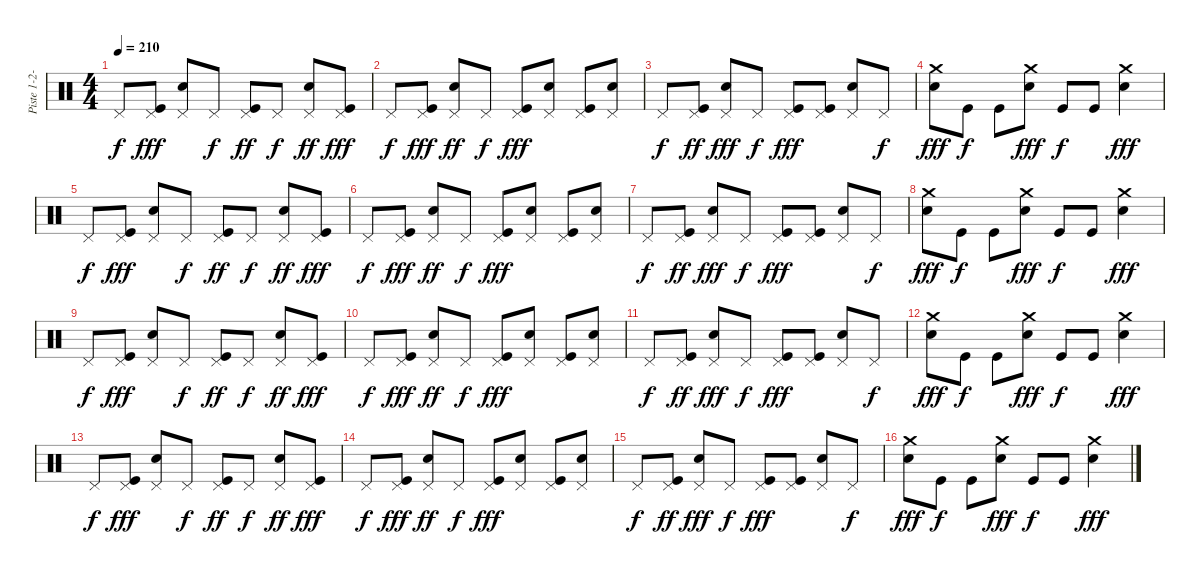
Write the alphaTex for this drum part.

\track ("Piste 1-2-3-4" "Piste 1-2-") {instrument percussion}
\staff {score}
\articulation defaults
\ts (4 4)
\tempo 210
\clef neutral
\ks c "Pedal Hi-Hat (hit)".8{dy f}
("Pedal Hi-Hat (hit)" "Kick (hit)").8{dy fff} ("Pedal Hi-Hat (hit)" "Snare (hit) 2").8 "Pedal Hi-Hat (hit)".8{dy f} ("Pedal Hi-Hat (hit)" "Kick (hit)").8{dy ff} "Pedal Hi-Hat (hit)".8{dy f} ("Pedal Hi-Hat (hit)" "Snare (hit) 2").8{dy ff} ("Pedal Hi-Hat (hit)" "Kick (hit)").8{dy fff} |
"Pedal Hi-Hat (hit)".8{dy f} ("Pedal Hi-Hat (hit)" "Kick (hit)").8{dy fff} ("Pedal Hi-Hat (hit)" "Snare (hit) 2").8{dy ff} "Pedal Hi-Hat (hit)".8{dy f} ("Pedal Hi-Hat (hit)" "Kick (hit)").8{dy fff} ("Pedal Hi-Hat (hit)" "Snare (hit) 2").8 ("Pedal Hi-Hat (hit)" "Kick (hit)").8 ("Pedal Hi-Hat (hit)" "Snare (hit) 2").8 |
"Pedal Hi-Hat (hit)".8{dy f} ("Pedal Hi-Hat (hit)" "Kick (hit)").8{dy ff} ("Pedal Hi-Hat (hit)" "Snare (hit) 2").8{dy fff} "Pedal Hi-Hat (hit)".8{dy f} ("Pedal Hi-Hat (hit)" "Kick (hit)").8{dy fff} ("Pedal Hi-Hat (hit)" "Kick (hit)").8 ("Pedal Hi-Hat (hit)" "Snare (hit) 2").8 "Pedal Hi-Hat (hit)".8{dy f} |
("Crash medium (hit)" "Snare (hit) 2").8{dy fff} "Kick (hit)".8{dy f} "Kick (hit)".8 ("Crash medium (hit)" "Snare (hit) 2").8{dy fff} "Kick (hit)".8{dy f} "Kick (hit)".8 ("Crash medium (hit)" "Snare (hit) 2").4{dy fff} |
"Pedal Hi-Hat (hit)".8{dy f} ("Pedal Hi-Hat (hit)" "Kick (hit)").8{dy fff} ("Pedal Hi-Hat (hit)" "Snare (hit) 2").8 "Pedal Hi-Hat (hit)".8{dy f} ("Pedal Hi-Hat (hit)" "Kick (hit)").8{dy ff} "Pedal Hi-Hat (hit)".8{dy f} ("Pedal Hi-Hat (hit)" "Snare (hit) 2").8{dy ff} ("Pedal Hi-Hat (hit)" "Kick (hit)").8{dy fff} |
"Pedal Hi-Hat (hit)".8{dy f} ("Pedal Hi-Hat (hit)" "Kick (hit)").8{dy fff} ("Pedal Hi-Hat (hit)" "Snare (hit) 2").8{dy ff} "Pedal Hi-Hat (hit)".8{dy f} ("Pedal Hi-Hat (hit)" "Kick (hit)").8{dy fff} ("Pedal Hi-Hat (hit)" "Snare (hit) 2").8 ("Pedal Hi-Hat (hit)" "Kick (hit)").8 ("Pedal Hi-Hat (hit)" "Snare (hit) 2").8 |
"Pedal Hi-Hat (hit)".8{dy f} ("Pedal Hi-Hat (hit)" "Kick (hit)").8{dy ff} ("Pedal Hi-Hat (hit)" "Snare (hit) 2").8{dy fff} "Pedal Hi-Hat (hit)".8{dy f} ("Pedal Hi-Hat (hit)" "Kick (hit)").8{dy fff} ("Pedal Hi-Hat (hit)" "Kick (hit)").8 ("Pedal Hi-Hat (hit)" "Snare (hit) 2").8 "Pedal Hi-Hat (hit)".8{dy f} |
("Crash medium (hit)" "Snare (hit) 2").8{dy fff} "Kick (hit)".8{dy f} "Kick (hit)".8 ("Crash medium (hit)" "Snare (hit) 2").8{dy fff} "Kick (hit)".8{dy f} "Kick (hit)".8 ("Crash medium (hit)" "Snare (hit) 2").4{dy fff} |
"Pedal Hi-Hat (hit)".8{dy f} ("Pedal Hi-Hat (hit)" "Kick (hit)").8{dy fff} ("Pedal Hi-Hat (hit)" "Snare (hit) 2").8 "Pedal Hi-Hat (hit)".8{dy f} ("Pedal Hi-Hat (hit)" "Kick (hit)").8{dy ff} "Pedal Hi-Hat (hit)".8{dy f} ("Pedal Hi-Hat (hit)" "Snare (hit) 2").8{dy ff} ("Pedal Hi-Hat (hit)" "Kick (hit)").8{dy fff} |
"Pedal Hi-Hat (hit)".8{dy f} ("Pedal Hi-Hat (hit)" "Kick (hit)").8{dy fff} ("Pedal Hi-Hat (hit)" "Snare (hit) 2").8{dy ff} "Pedal Hi-Hat (hit)".8{dy f} ("Pedal Hi-Hat (hit)" "Kick (hit)").8{dy fff} ("Pedal Hi-Hat (hit)" "Snare (hit) 2").8 ("Pedal Hi-Hat (hit)" "Kick (hit)").8 ("Pedal Hi-Hat (hit)" "Snare (hit) 2").8 |
"Pedal Hi-Hat (hit)".8{dy f} ("Pedal Hi-Hat (hit)" "Kick (hit)").8{dy ff} ("Pedal Hi-Hat (hit)" "Snare (hit) 2").8{dy fff} "Pedal Hi-Hat (hit)".8{dy f} ("Pedal Hi-Hat (hit)" "Kick (hit)").8{dy fff} ("Pedal Hi-Hat (hit)" "Kick (hit)").8 ("Pedal Hi-Hat (hit)" "Snare (hit) 2").8 "Pedal Hi-Hat (hit)".8{dy f} |
("Crash medium (hit)" "Snare (hit) 2").8{dy fff} "Kick (hit)".8{dy f} "Kick (hit)".8 ("Crash medium (hit)" "Snare (hit) 2").8{dy fff} "Kick (hit)".8{dy f} "Kick (hit)".8 ("Crash medium (hit)" "Snare (hit) 2").4{dy fff} |
"Pedal Hi-Hat (hit)".8{dy f} ("Pedal Hi-Hat (hit)" "Kick (hit)").8{dy fff} ("Pedal Hi-Hat (hit)" "Snare (hit) 2").8 "Pedal Hi-Hat (hit)".8{dy f} ("Pedal Hi-Hat (hit)" "Kick (hit)").8{dy ff} "Pedal Hi-Hat (hit)".8{dy f} ("Pedal Hi-Hat (hit)" "Snare (hit) 2").8{dy ff} ("Pedal Hi-Hat (hit)" "Kick (hit)").8{dy fff} |
"Pedal Hi-Hat (hit)".8{dy f} ("Pedal Hi-Hat (hit)" "Kick (hit)").8{dy fff} ("Pedal Hi-Hat (hit)" "Snare (hit) 2").8{dy ff} "Pedal Hi-Hat (hit)".8{dy f} ("Pedal Hi-Hat (hit)" "Kick (hit)").8{dy fff} ("Pedal Hi-Hat (hit)" "Snare (hit) 2").8 ("Pedal Hi-Hat (hit)" "Kick (hit)").8 ("Pedal Hi-Hat (hit)" "Snare (hit) 2").8 |
"Pedal Hi-Hat (hit)".8{dy f} ("Pedal Hi-Hat (hit)" "Kick (hit)").8{dy ff} ("Pedal Hi-Hat (hit)" "Snare (hit) 2").8{dy fff} "Pedal Hi-Hat (hit)".8{dy f} ("Pedal Hi-Hat (hit)" "Kick (hit)").8{dy fff} ("Pedal Hi-Hat (hit)" "Kick (hit)").8 ("Pedal Hi-Hat (hit)" "Snare (hit) 2").8 "Pedal Hi-Hat (hit)".8{dy f} |
("Crash medium (hit)" "Snare (hit) 2").8{dy fff} "Kick (hit)".8{dy f} "Kick (hit)".8 ("Crash medium (hit)" "Snare (hit) 2").8{dy fff} "Kick (hit)".8{dy f} "Kick (hit)".8 ("Crash medium (hit)" "Snare (hit) 2").4{dy fff}
